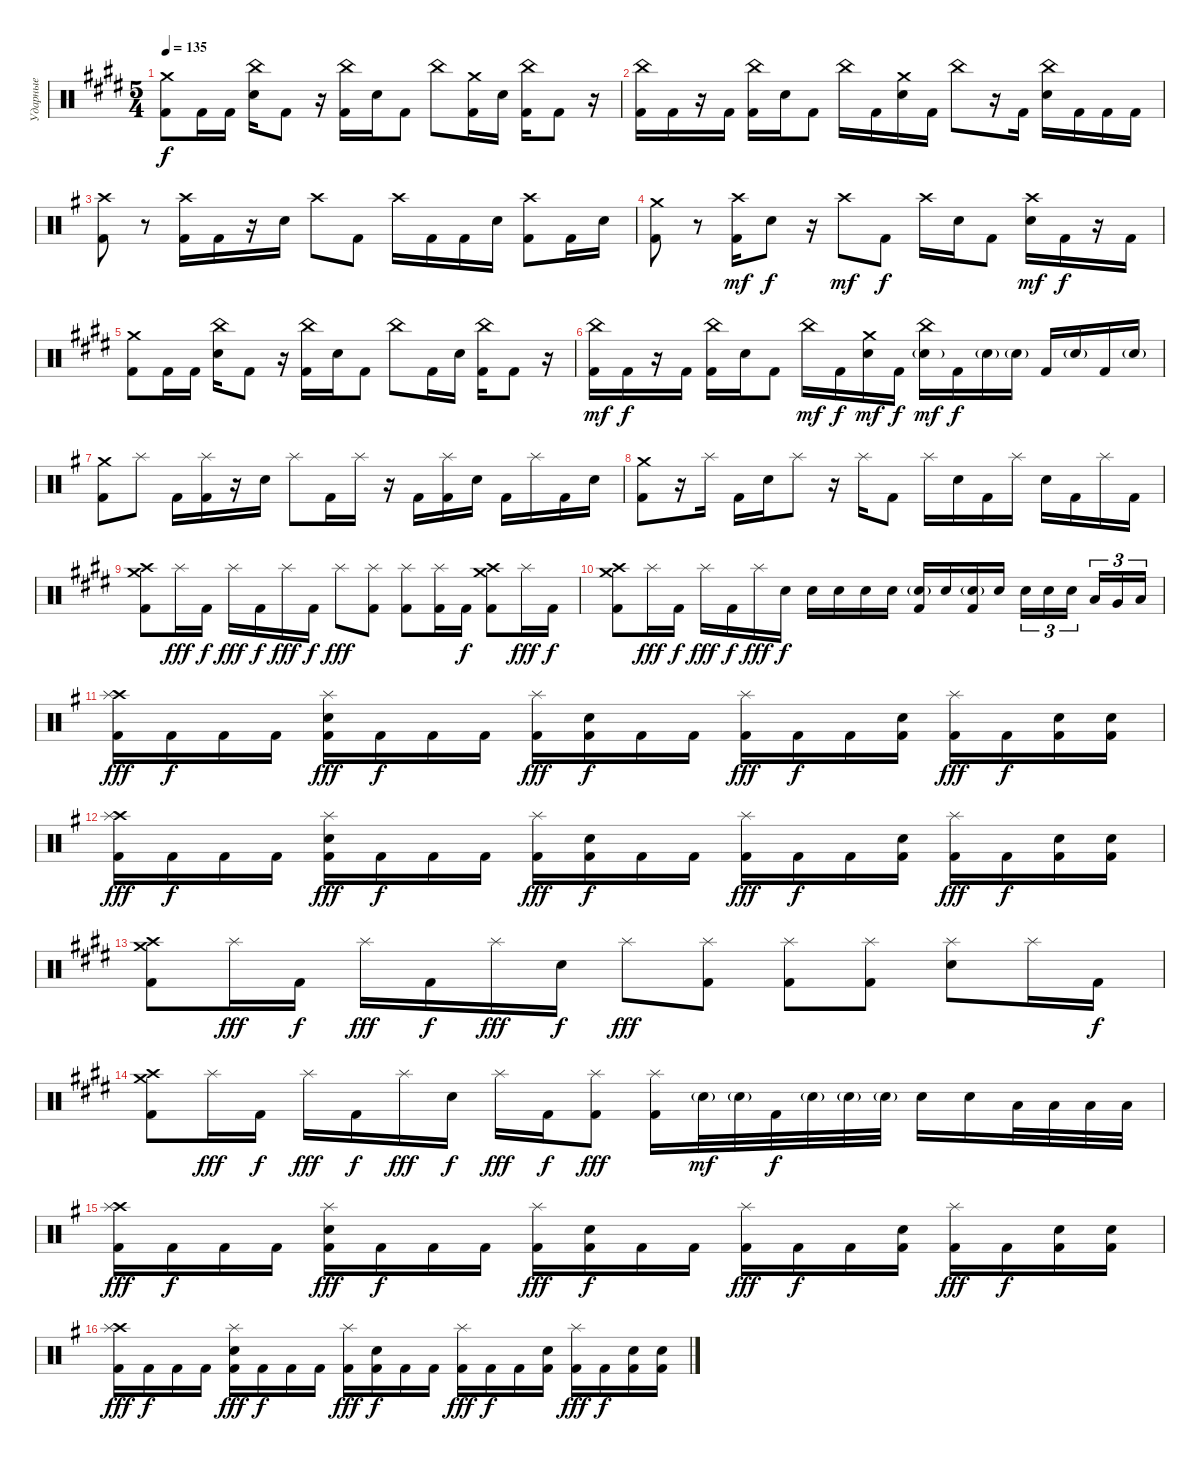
\track ("Ударные" "Ударные") {instrument percussion}
\staff {score}
\articulation defaults
\ts (5 4)
\tempo 135
\clef neutral
\ks e
("Crash medium (hit)" "Kick (hit) 2").8{dy f} "Kick (hit) 2".16 "Kick (hit) 2".16 ("China (hit)" "Electric Snare (hit)").16 "Kick (hit) 2".8 r.16 ("China (hit)" "Kick (hit) 2").16 "Electric Snare (hit)".16 "Kick (hit) 2".8 "China (hit)".8 ("Crash medium (hit)" "Kick (hit) 2").16 "Electric Snare (hit)".16 ("China (hit)" "Kick (hit) 2").16 "Kick (hit) 2".8 r.16 |
("China (hit)" "Kick (hit) 2").16 "Kick (hit) 2".16 r.16 "Kick (hit) 2".16 ("China (hit)" "Kick (hit) 2").16 "Electric Snare (hit)".16 "Kick (hit) 2".8 "China (hit)".16 "Kick (hit) 2".16 ("Crash medium (hit)" "Electric Snare (hit)").16 "Kick (hit) 2".16 "China (hit)".8 r.16 "Kick (hit) 2".16 ("China (hit)" "Electric Snare (hit)").16 "Kick (hit) 2".16 "Kick (hit) 2".16 "Kick (hit) 2".16 |
\ks g
("Crash high (hit)" "Kick (hit) 2").8 r.8 ("Crash high (hit)" "Kick (hit) 2").16 "Kick (hit) 2".16 r.16 "Electric Snare (hit)".16 "Crash high (hit)".8 "Kick (hit) 2".8 "Crash high (hit)".16 "Kick (hit) 2".16 "Kick (hit) 2".16 "Electric Snare (hit)".16 ("Crash high (hit)" "Kick (hit) 2").8 "Kick (hit) 2".16 "Electric Snare (hit)".16 |
("Crash medium (hit)" "Kick (hit) 2").8 r.8 ("Crash high (hit)" "Kick (hit) 2").16{dy mf} "Electric Snare (hit)".8{dy f} r.16 "Crash high (hit)".8{dy mf} "Kick (hit) 2".8{dy f} "Crash high (hit)".16 "Electric Snare (hit)".16 "Kick (hit) 2".8 ("Crash high (hit)" "Electric Snare (hit)").16{dy mf} "Kick (hit) 2".16{dy f} r.16 "Kick (hit) 2".16 |
\ks e
("Crash medium (hit)" "Kick (hit) 2").8 "Kick (hit) 2".16 "Kick (hit) 2".16 ("China (hit)" "Electric Snare (hit)").16 "Kick (hit) 2".8 r.16 ("China (hit)" "Kick (hit) 2").16 "Electric Snare (hit)".16 "Kick (hit) 2".8 "China (hit)".8 "Kick (hit) 2".16 "Electric Snare (hit)".16 ("China (hit)" "Kick (hit) 2").16 "Kick (hit) 2".8 r.16 |
("China (hit)" "Kick (hit) 2").16{dy mf} "Kick (hit) 2".16{dy f} r.16 "Kick (hit) 2".16 ("China (hit)" "Kick (hit) 2").16 "Electric Snare (hit)".16 "Kick (hit) 2".8 "China (hit)".16{dy mf} "Kick (hit) 2".16{dy f} ("Crash medium (hit)" "Electric Snare (hit)").16{dy mf} "Kick (hit) 2".16{dy f} ("China (hit)" "Electric Snare (hit)"{g}).16{dy mf} "Kick (hit) 2".16{dy f} "Electric Snare (hit)"{g}.16 "Electric Snare (hit)"{g}.16 "Kick (hit) 2".16 "Electric Snare (hit)"{g}.16 "Kick (hit) 2".16 "Electric Snare (hit)"{g}.16 |
\ks g
("Crash medium (hit)" "Kick (hit) 2").8 "Splash (hit)".8 "Kick (hit) 2".16 ("Splash (hit)" "Kick (hit) 2").16 r.16 "Electric Snare (hit)".16 "Splash (hit)".8 "Kick (hit) 2".16 "Splash (hit)".16 r.16 "Kick (hit) 2".16 ("Splash (hit)" "Kick (hit) 2").16 "Electric Snare (hit)".16 "Kick (hit) 2".16 "Splash (hit)".16 "Kick (hit) 2".16 "Electric Snare (hit)".16 |
("Crash medium (hit)" "Kick (hit) 2").8 r.16 "Splash (hit)".16 "Kick (hit) 2".16 "Electric Snare (hit)".16 "Splash (hit)".8 r.16 "Splash (hit)".16 "Kick (hit) 2".8 "Splash (hit)".16 "Electric Snare (hit)".16 "Kick (hit) 2".16 "Splash (hit)".16 "Electric Snare (hit)".16 "Kick (hit) 2".16 "Splash (hit)".16 "Kick (hit) 2".16 |
\ks e
("Crash high (hit)" "Crash medium (hit)" "Kick (hit) 2").8 "Splash (hit)".16{dy fff} "Kick (hit) 2".16{dy f} "Splash (hit)".16{dy fff} "Kick (hit) 2".16{dy f} "Splash (hit)".16{dy fff} "Kick (hit) 2".16{dy f} "Splash (hit)".8{dy fff} ("Splash (hit)" "Kick (hit) 2").8 ("Splash (hit)" "Kick (hit) 2").8 ("Splash (hit)" "Kick (hit) 2").16 "Kick (hit) 2".16{dy f} ("Crash high (hit)" "Crash medium (hit)" "Kick (hit) 2").8 "Splash (hit)".16{dy fff} "Kick (hit) 2".16{dy f} |
("Crash high (hit)" "Crash medium (hit)" "Kick (hit) 2").8 "Splash (hit)".16{dy fff} "Kick (hit) 2".16{dy f} "Splash (hit)".16{dy fff} "Kick (hit) 2".16{dy f} "Splash (hit)".16{dy fff} "Electric Snare (hit)".16{dy f} "Electric Snare (hit)".16 "Electric Snare (hit)".16 "Electric Snare (hit)".16 "Electric Snare (hit)".16 ("Electric Snare (hit)"{g} "Kick (hit) 2").16 "Electric Snare (hit)".16 ("Electric Snare (hit)"{g} "Kick (hit) 2").16 "Electric Snare (hit)".16 "Electric Snare (hit)".16{tu (3 2)} "Electric Snare (hit)".16{tu (3 2)} "Electric Snare (hit)".16{tu (3 2) beam splitsecondary} "Low Tom (hit)".16{tu (3 2)} "Very Low Tom (hit)".16{tu (3 2)} "Low Floor Tom (hit)".16{tu (3 2)} |
\ks g
("Crash high (hit)" "Splash (hit)" "Kick (hit) 2").16{dy fff} "Kick (hit) 2".16{dy f} "Kick (hit) 2".16 "Kick (hit) 2".16 ("Splash (hit)" "Electric Snare (hit)" "Kick (hit) 2").16{dy fff} "Kick (hit) 2".16{dy f} "Kick (hit) 2".16 "Kick (hit) 2".16 ("Splash (hit)" "Kick (hit) 2").16{dy fff} ("Electric Snare (hit)" "Kick (hit) 2").16{dy f} "Kick (hit) 2".16 "Kick (hit) 2".16 ("Splash (hit)" "Kick (hit) 2").16{dy fff} "Kick (hit) 2".16{dy f} "Kick (hit) 2".16 ("Electric Snare (hit)" "Kick (hit) 2").16 ("Splash (hit)" "Kick (hit) 2").16{dy fff} "Kick (hit) 2".16{dy f} ("Electric Snare (hit)" "Kick (hit) 2").16 ("Electric Snare (hit)" "Kick (hit) 2").16 |
("Crash high (hit)" "Splash (hit)" "Kick (hit) 2").16{dy fff} "Kick (hit) 2".16{dy f} "Kick (hit) 2".16 "Kick (hit) 2".16 ("Splash (hit)" "Electric Snare (hit)" "Kick (hit) 2").16{dy fff} "Kick (hit) 2".16{dy f} "Kick (hit) 2".16 "Kick (hit) 2".16 ("Splash (hit)" "Kick (hit) 2").16{dy fff} ("Electric Snare (hit)" "Kick (hit) 2").16{dy f} "Kick (hit) 2".16 "Kick (hit) 2".16 ("Splash (hit)" "Kick (hit) 2").16{dy fff} "Kick (hit) 2".16{dy f} "Kick (hit) 2".16 ("Electric Snare (hit)" "Kick (hit) 2").16 ("Splash (hit)" "Kick (hit) 2").16{dy fff} "Kick (hit) 2".16{dy f} ("Electric Snare (hit)" "Kick (hit) 2").16 ("Electric Snare (hit)" "Kick (hit) 2").16 |
\ks e
("Crash high (hit)" "Crash medium (hit)" "Kick (hit) 2").8 "Splash (hit)".16{dy fff} "Kick (hit) 2".16{dy f} "Splash (hit)".16{dy fff} "Kick (hit) 2".16{dy f} "Splash (hit)".16{dy fff} "Electric Snare (hit)".16{dy f} "Splash (hit)".8{dy fff} ("Splash (hit)" "Kick (hit) 2").8 ("Splash (hit)" "Kick (hit) 2").8 ("Splash (hit)" "Kick (hit) 2").8 ("Splash (hit)" "Electric Snare (hit)").8 "Splash (hit)".16 "Kick (hit) 2".16{dy f} |
("Crash high (hit)" "Crash medium (hit)" "Kick (hit) 2").8 "Splash (hit)".16{dy fff} "Kick (hit) 2".16{dy f} "Splash (hit)".16{dy fff} "Kick (hit) 2".16{dy f} "Splash (hit)".16{dy fff} "Electric Snare (hit)".16{dy f} "Splash (hit)".16{dy fff} "Kick (hit) 2".16{dy f} ("Splash (hit)" "Kick (hit) 2").8{dy fff} ("Splash (hit)" "Kick (hit) 2").16 "Electric Snare (hit)"{g}.32{dy mf} "Electric Snare (hit)"{g}.32 "Kick (hit) 2".32{dy f} "Electric Snare (hit)"{g}.32 "Electric Snare (hit)"{g}.32 "Electric Snare (hit)"{g}.32 "Electric Snare (hit)".16 "Electric Snare (hit)".16 "Low Tom (hit)".32 "Low Tom (hit)".32 "Low Tom (hit)".32 "Low Tom (hit)".32 |
\ks g
("Crash high (hit)" "Splash (hit)" "Kick (hit) 2").16{dy fff} "Kick (hit) 2".16{dy f} "Kick (hit) 2".16 "Kick (hit) 2".16 ("Splash (hit)" "Electric Snare (hit)" "Kick (hit) 2").16{dy fff} "Kick (hit) 2".16{dy f} "Kick (hit) 2".16 "Kick (hit) 2".16 ("Splash (hit)" "Kick (hit) 2").16{dy fff} ("Electric Snare (hit)" "Kick (hit) 2").16{dy f} "Kick (hit) 2".16 "Kick (hit) 2".16 ("Splash (hit)" "Kick (hit) 2").16{dy fff} "Kick (hit) 2".16{dy f} "Kick (hit) 2".16 ("Electric Snare (hit)" "Kick (hit) 2").16 ("Splash (hit)" "Kick (hit) 2").16{dy fff} "Kick (hit) 2".16{dy f} ("Electric Snare (hit)" "Kick (hit) 2").16 ("Electric Snare (hit)" "Kick (hit) 2").16 |
("Crash high (hit)" "Splash (hit)" "Kick (hit) 2").16{dy fff} "Kick (hit) 2".16{dy f} "Kick (hit) 2".16 "Kick (hit) 2".16 ("Splash (hit)" "Electric Snare (hit)" "Kick (hit) 2").16{dy fff} "Kick (hit) 2".16{dy f} "Kick (hit) 2".16 "Kick (hit) 2".16 ("Splash (hit)" "Kick (hit) 2").16{dy fff} ("Electric Snare (hit)" "Kick (hit) 2").16{dy f} "Kick (hit) 2".16 "Kick (hit) 2".16 ("Splash (hit)" "Kick (hit) 2").16{dy fff} "Kick (hit) 2".16{dy f} "Kick (hit) 2".16 ("Electric Snare (hit)" "Kick (hit) 2").16 ("Splash (hit)" "Kick (hit) 2").16{dy fff} "Kick (hit) 2".16{dy f} ("Electric Snare (hit)" "Kick (hit) 2").16 ("Electric Snare (hit)" "Kick (hit) 2").16
